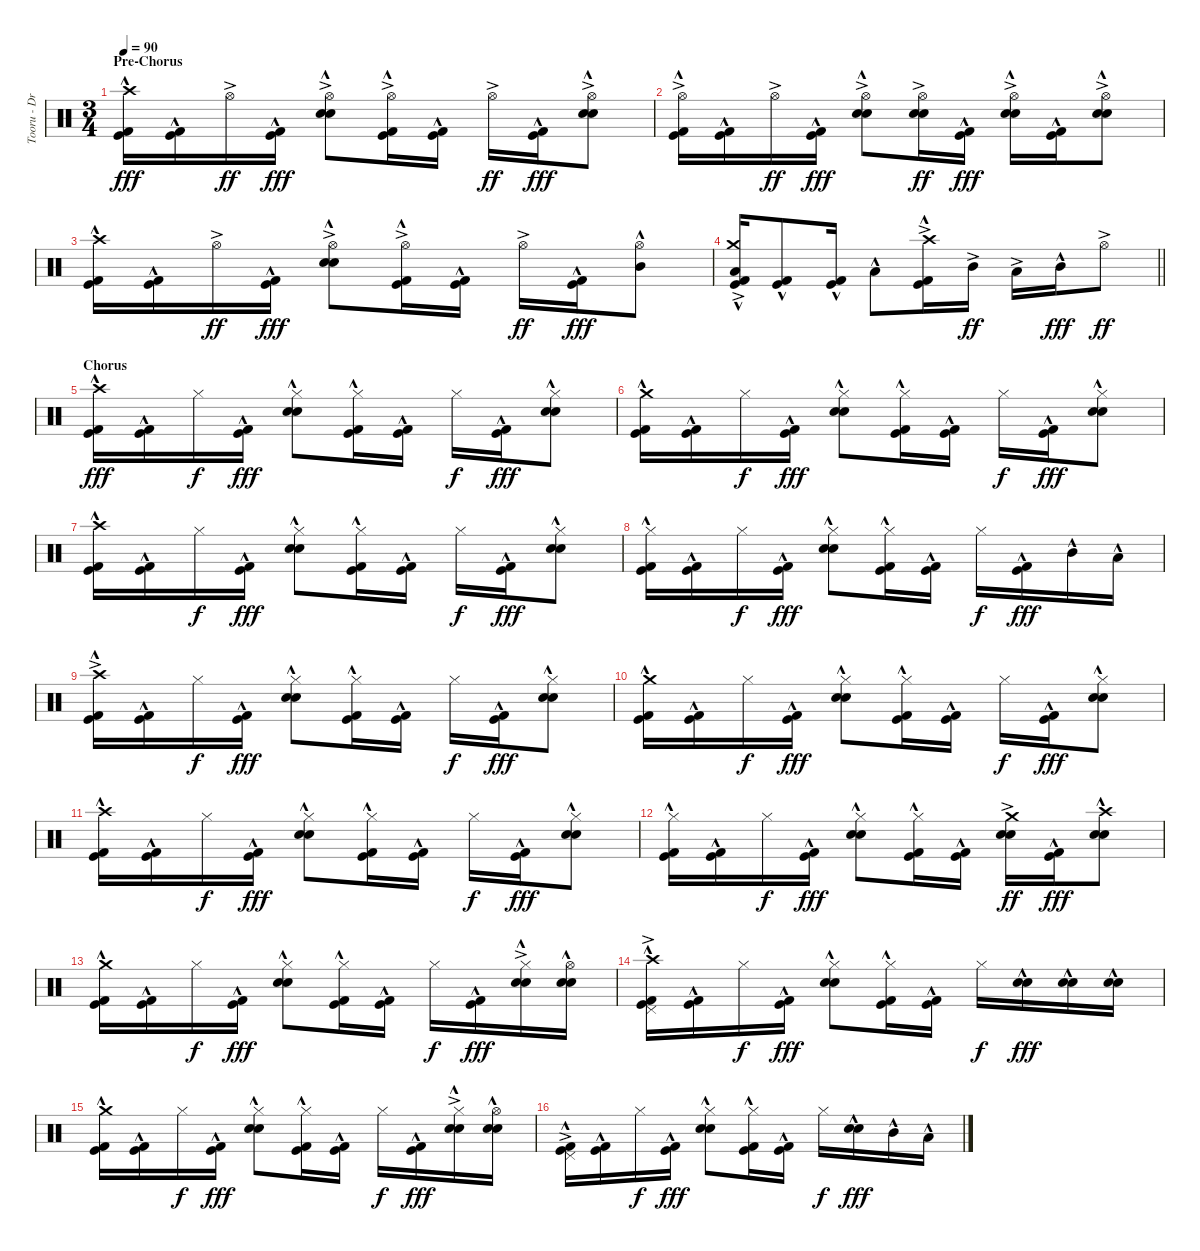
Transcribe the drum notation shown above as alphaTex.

\track ("Tooru - Drums" "Tooru - Dr") {instrument percussion}
\staff {score}
\articulation defaults
\ts (3 4)
\section ("" "Pre-Chorus")
\tempo 90
\clef neutral
\ks c
("Crash high (hit)"{hac} "Kick (hit)"{hac} "Kick (hit) 2"{hac}).16{dy fff} ("Kick (hit)"{hac} "Kick (hit) 2"{hac}).16 "Hi-Hat (open)"{ac}.16{dy ff} ("Kick (hit)"{hac} "Kick (hit) 2"{hac}).16{dy fff} ("Hi-Hat (open)"{ac} "Electric Snare (hit)"{hac} "Snare (hit) 2"{hac}).8 ("Hi-Hat (open)"{ac} "Kick (hit)"{hac} "Kick (hit) 2"{hac}).16 ("Kick (hit)"{hac} "Kick (hit) 2"{hac}).16 "Hi-Hat (open)"{ac}.16{dy ff} ("Kick (hit)"{hac} "Kick (hit) 2"{hac}).16{dy fff} ("Hi-Hat (open)"{ac} "Electric Snare (hit)"{hac} "Snare (hit) 2"{hac}).8 |
("Hi-Hat (open)"{ac} "Kick (hit)"{hac} "Kick (hit) 2"{hac}).16 ("Kick (hit)"{hac} "Kick (hit) 2"{hac}).16 "Hi-Hat (open)"{ac}.16{dy ff} ("Kick (hit)"{hac} "Kick (hit) 2"{hac}).16{dy fff} ("Hi-Hat (open)"{ac} "Electric Snare (hit)"{hac} "Snare (hit) 2"{hac}).8 ("Hi-Hat (open)"{ac} "Electric Snare (hit)"{ac} "Snare (hit) 2"{ac}).16{dy ff} ("Kick (hit)"{hac} "Kick (hit) 2"{hac}).16{dy fff} ("Hi-Hat (open)"{ac} "Electric Snare (hit)"{hac} "Snare (hit) 2"{hac}).16 ("Kick (hit)"{hac} "Kick (hit) 2"{hac}).16 ("Hi-Hat (open)"{ac} "Electric Snare (hit)"{hac} "Snare (hit) 2"{hac}).8 |
("Crash high (hit)"{hac} "Kick (hit)"{hac} "Kick (hit) 2"{hac}).16 ("Kick (hit)"{hac} "Kick (hit) 2"{hac}).16 "Hi-Hat (open)"{ac}.16{dy ff} ("Kick (hit)"{hac} "Kick (hit) 2"{hac}).16{dy fff} ("Hi-Hat (open)"{ac} "Electric Snare (hit)"{hac} "Snare (hit) 2"{hac}).8 ("Hi-Hat (open)"{ac} "Kick (hit)"{hac} "Kick (hit) 2"{hac}).16 ("Kick (hit)"{hac} "Kick (hit) 2"{hac}).16 "Hi-Hat (open)"{ac}.16{dy ff} ("Kick (hit)"{hac} "Kick (hit) 2"{hac}).16{dy fff} ("Hi-Hat (open)" "Mid Tom (hit)"{hac}).8 |
\barLineRight lightlight
("Crash medium (hit)"{ac} "Low Tom (hit)"{hac} "Kick (hit)"{hac} "Kick (hit) 2"{hac}).16 ("Kick (hit)"{hac} "Kick (hit) 2"{hac}).8 ("Kick (hit)"{hac} "Kick (hit) 2"{hac}).16 "Low Tom (hit)"{hac}.8 ("Crash high (hit)"{ac} "Kick (hit)"{hac} "Kick (hit) 2"{hac}).16 "Mid Tom (hit)"{ac}.16{dy ff} "Low Tom (hit)"{ac}.16 "Mid Tom (hit)"{hac}.16{dy fff} "Hi-Hat (open)"{ac}.8{dy ff} |
\section ("" "Chorus")
("Crash high (hit)"{hac} "Kick (hit)"{hac} "Kick (hit) 2"{hac}).16{dy fff} ("Kick (hit)"{hac} "Kick (hit) 2"{hac}).16 "Hi-Hat (closed)".16{dy f} ("Kick (hit)"{hac} "Kick (hit) 2"{hac}).16{dy fff} ("Hi-Hat (closed)" "Electric Snare (hit)"{hac} "Snare (hit) 2"{hac}).8 ("Hi-Hat (closed)" "Kick (hit)"{hac} "Kick (hit) 2"{hac}).16 ("Kick (hit)"{hac} "Kick (hit) 2"{hac}).16 "Hi-Hat (closed)".16{dy f} ("Kick (hit)"{hac} "Kick (hit) 2"{hac}).16{dy fff} ("Hi-Hat (closed)" "Electric Snare (hit)"{hac} "Snare (hit) 2"{hac}).8 |
("Crash medium (hit)"{hac} "Kick (hit)"{hac} "Kick (hit) 2"{hac}).16 ("Kick (hit)"{hac} "Kick (hit) 2"{hac}).16 "Hi-Hat (closed)".16{dy f} ("Kick (hit)"{hac} "Kick (hit) 2"{hac}).16{dy fff} ("Hi-Hat (closed)" "Electric Snare (hit)"{hac} "Snare (hit) 2"{hac}).8 ("Hi-Hat (closed)" "Kick (hit)"{hac} "Kick (hit) 2"{hac}).16 ("Kick (hit)"{hac} "Kick (hit) 2"{hac}).16 "Hi-Hat (closed)".16{dy f} ("Kick (hit)"{hac} "Kick (hit) 2"{hac}).16{dy fff} ("Hi-Hat (closed)" "Electric Snare (hit)"{hac} "Snare (hit) 2"{hac}).8 |
("Crash high (hit)"{hac} "Kick (hit)"{hac} "Kick (hit) 2"{hac}).16 ("Kick (hit)"{hac} "Kick (hit) 2"{hac}).16 "Hi-Hat (closed)".16{dy f} ("Kick (hit)"{hac} "Kick (hit) 2"{hac}).16{dy fff} ("Hi-Hat (closed)" "Electric Snare (hit)"{hac} "Snare (hit) 2"{hac}).8 ("Hi-Hat (closed)" "Kick (hit)"{hac} "Kick (hit) 2"{hac}).16 ("Kick (hit)"{hac} "Kick (hit) 2"{hac}).16 "Hi-Hat (closed)".16{dy f} ("Kick (hit)"{hac} "Kick (hit) 2"{hac}).16{dy fff} ("Hi-Hat (closed)" "Electric Snare (hit)"{hac} "Snare (hit) 2"{hac}).8 |
("Hi-Hat (closed)" "Kick (hit)"{hac} "Kick (hit) 2"{hac}).16 ("Kick (hit)"{hac} "Kick (hit) 2"{hac}).16 "Hi-Hat (closed)".16{dy f} ("Kick (hit)"{hac} "Kick (hit) 2"{hac}).16{dy fff} ("Hi-Hat (closed)" "Electric Snare (hit)"{hac} "Snare (hit) 2"{hac}).8 ("Hi-Hat (closed)" "Kick (hit)"{hac} "Kick (hit) 2"{hac}).16 ("Kick (hit)"{hac} "Kick (hit) 2"{hac}).16 "Hi-Hat (closed)".16{dy f} ("Kick (hit)"{hac} "Kick (hit) 2"{hac}).16{dy fff} "Mid Tom (hit)"{hac}.16 "Low Tom (hit)"{hac}.16 |
("Crash high (hit)"{ac} "Kick (hit)"{hac} "Kick (hit) 2"{hac}).16 ("Kick (hit)"{hac} "Kick (hit) 2"{hac}).16 "Hi-Hat (closed)".16{dy f} ("Kick (hit)"{hac} "Kick (hit) 2"{hac}).16{dy fff} ("Hi-Hat (closed)" "Electric Snare (hit)"{hac} "Snare (hit) 2"{hac}).8 ("Hi-Hat (closed)" "Kick (hit)"{hac} "Kick (hit) 2"{hac}).16 ("Kick (hit)"{hac} "Kick (hit) 2"{hac}).16 "Hi-Hat (closed)".16{dy f} ("Kick (hit)"{hac} "Kick (hit) 2"{hac}).16{dy fff} ("Hi-Hat (closed)" "Electric Snare (hit)"{hac} "Snare (hit) 2"{hac}).8 |
("Crash medium (hit)"{hac} "Kick (hit)"{hac} "Kick (hit) 2"{hac}).16 ("Kick (hit)"{hac} "Kick (hit) 2"{hac}).16 "Hi-Hat (closed)".16{dy f} ("Kick (hit)"{hac} "Kick (hit) 2"{hac}).16{dy fff} ("Hi-Hat (closed)" "Electric Snare (hit)"{hac} "Snare (hit) 2"{hac}).8 ("Hi-Hat (closed)" "Kick (hit)"{hac} "Kick (hit) 2"{hac}).16 ("Kick (hit)"{hac} "Kick (hit) 2"{hac}).16 "Hi-Hat (closed)".16{dy f} ("Kick (hit)"{hac} "Kick (hit) 2"{hac}).16{dy fff} ("Hi-Hat (closed)" "Electric Snare (hit)"{hac} "Snare (hit) 2"{hac}).8 |
("Crash high (hit)"{hac} "Kick (hit)"{hac} "Kick (hit) 2"{hac}).16 ("Kick (hit)"{hac} "Kick (hit) 2"{hac}).16 "Hi-Hat (closed)".16{dy f} ("Kick (hit)"{hac} "Kick (hit) 2"{hac}).16{dy fff} ("Hi-Hat (closed)" "Electric Snare (hit)"{hac} "Snare (hit) 2"{hac}).8 ("Hi-Hat (closed)" "Kick (hit)"{hac} "Kick (hit) 2"{hac}).16 ("Kick (hit)"{hac} "Kick (hit) 2"{hac}).16 "Hi-Hat (closed)".16{dy f} ("Kick (hit)"{hac} "Kick (hit) 2"{hac}).16{dy fff} ("Hi-Hat (closed)" "Electric Snare (hit)"{hac} "Snare (hit) 2"{hac}).8 |
("Hi-Hat (closed)" "Kick (hit)"{hac} "Kick (hit) 2"{hac}).16 ("Kick (hit)"{hac} "Kick (hit) 2"{hac}).16 "Hi-Hat (closed)".16{dy f} ("Kick (hit)"{hac} "Kick (hit) 2"{hac}).16{dy fff} ("Hi-Hat (closed)" "Electric Snare (hit)"{hac} "Snare (hit) 2"{hac}).8 ("Hi-Hat (closed)" "Kick (hit)"{hac} "Kick (hit) 2"{hac}).16 ("Kick (hit)"{hac} "Kick (hit) 2"{hac}).16 ("Crash medium (hit)"{ac} "Electric Snare (hit)"{ac} "Snare (hit) 2"{ac}).16{dy ff} ("Kick (hit)"{hac} "Kick (hit) 2"{hac}).16{dy fff} ("Crash high (hit)"{hac} "Electric Snare (hit)"{hac} "Snare (hit) 2"{hac}).8 |
("Crash medium (hit)"{hac} "Kick (hit)"{hac} "Kick (hit) 2"{hac}).16 ("Kick (hit)"{hac} "Kick (hit) 2"{hac}).16 "Hi-Hat (closed)".16{dy f} ("Kick (hit)"{hac} "Kick (hit) 2"{hac}).16{dy fff} ("Hi-Hat (closed)" "Electric Snare (hit)"{hac} "Snare (hit) 2"{hac}).8 ("Hi-Hat (closed)" "Kick (hit)"{hac} "Kick (hit) 2"{hac}).16 ("Kick (hit)"{hac} "Kick (hit) 2"{hac}).16 "Hi-Hat (closed)".16{dy f} ("Kick (hit)"{hac} "Kick (hit) 2"{hac}).16{dy fff} ("Hi-Hat (closed)"{ac} "Electric Snare (hit)"{hac} "Snare (hit) 2"{hac}).16 ("Hi-Hat (open)"{hac} "Electric Snare (hit)"{hac} "Snare (hit) 2"{hac}).16 |
("Crash high (hit)"{hac} "Pedal Hi-Hat (hit)"{ac} "Kick (hit)"{hac} "Kick (hit) 2"{hac}).16 ("Kick (hit)"{hac} "Kick (hit) 2"{hac}).16 "Hi-Hat (closed)".16{dy f} ("Kick (hit)"{hac} "Kick (hit) 2"{hac}).16{dy fff} ("Hi-Hat (closed)" "Electric Snare (hit)"{hac} "Snare (hit) 2"{hac}).8 ("Hi-Hat (closed)" "Kick (hit)"{hac} "Kick (hit) 2"{hac}).16 ("Kick (hit)"{hac} "Kick (hit) 2"{hac}).16 "Hi-Hat (closed)".16{dy f} ("Electric Snare (hit)"{hac} "Snare (hit) 2"{hac}).16{dy fff} ("Electric Snare (hit)"{hac} "Snare (hit) 2"{hac}).16 ("Electric Snare (hit)"{hac} "Snare (hit) 2"{hac}).16 |
("Crash medium (hit)"{hac} "Kick (hit)"{hac} "Kick (hit) 2"{hac}).16 ("Kick (hit)"{hac} "Kick (hit) 2"{hac}).16 "Hi-Hat (closed)".16{dy f} ("Kick (hit)"{hac} "Kick (hit) 2"{hac}).16{dy fff} ("Hi-Hat (closed)" "Electric Snare (hit)"{hac} "Snare (hit) 2"{hac}).8 ("Hi-Hat (closed)" "Kick (hit)"{hac} "Kick (hit) 2"{hac}).16 ("Kick (hit)"{hac} "Kick (hit) 2"{hac}).16 "Hi-Hat (closed)".16{dy f} ("Kick (hit)"{hac} "Kick (hit) 2"{hac}).16{dy fff} ("Hi-Hat (closed)"{ac} "Electric Snare (hit)"{hac} "Snare (hit) 2"{hac}).16 ("Hi-Hat (open)"{hac} "Electric Snare (hit)"{hac} "Snare (hit) 2"{hac}).16 |
("Pedal Hi-Hat (hit)"{ac} "Kick (hit)"{hac} "Kick (hit) 2"{hac}).16 ("Kick (hit)"{hac} "Kick (hit) 2"{hac}).16 "Hi-Hat (closed)".16{dy f} ("Kick (hit)"{hac} "Kick (hit) 2"{hac}).16{dy fff} ("Hi-Hat (closed)" "Electric Snare (hit)"{hac} "Snare (hit) 2"{hac}).8 ("Hi-Hat (closed)" "Kick (hit)"{hac} "Kick (hit) 2"{hac}).16 ("Kick (hit)"{hac} "Kick (hit) 2"{hac}).16 "Hi-Hat (closed)".16{dy f} ("Electric Snare (hit)"{hac} "Snare (hit) 2"{hac}).16{dy fff} "Mid Tom (hit)"{hac}.16 "Low Tom (hit)"{hac}.16
